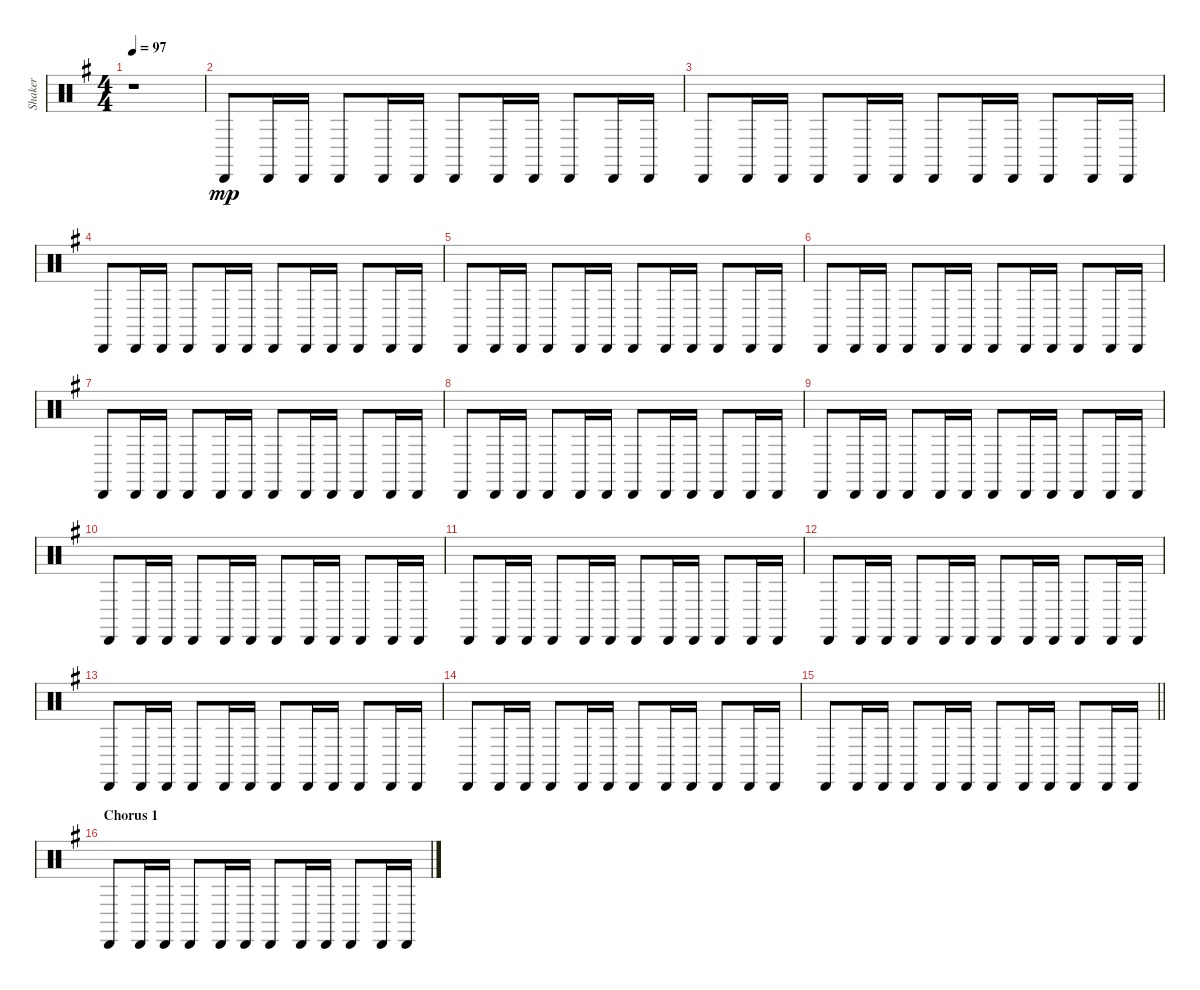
\track ("Shaker" "Shaker") {instrument percussion}
\staff {score}
\articulation defaults
\ts (4 4)
\tempo 97
\clef neutral
\ks g
r.1{dy mp} |
"Cabasa (hit)".8 "Cabasa (hit)".16 "Cabasa (hit)".16 "Cabasa (hit)".8 "Cabasa (hit)".16 "Cabasa (hit)".16 "Cabasa (hit)".8 "Cabasa (hit)".16 "Cabasa (hit)".16 "Cabasa (hit)".8 "Cabasa (hit)".16 "Cabasa (hit)".16 |
"Cabasa (hit)".8 "Cabasa (hit)".16 "Cabasa (hit)".16 "Cabasa (hit)".8 "Cabasa (hit)".16 "Cabasa (hit)".16 "Cabasa (hit)".8 "Cabasa (hit)".16 "Cabasa (hit)".16 "Cabasa (hit)".8 "Cabasa (hit)".16 "Cabasa (hit)".16 |
"Cabasa (hit)".8 "Cabasa (hit)".16 "Cabasa (hit)".16 "Cabasa (hit)".8 "Cabasa (hit)".16 "Cabasa (hit)".16 "Cabasa (hit)".8 "Cabasa (hit)".16 "Cabasa (hit)".16 "Cabasa (hit)".8 "Cabasa (hit)".16 "Cabasa (hit)".16 |
"Cabasa (hit)".8 "Cabasa (hit)".16 "Cabasa (hit)".16 "Cabasa (hit)".8 "Cabasa (hit)".16 "Cabasa (hit)".16 "Cabasa (hit)".8 "Cabasa (hit)".16 "Cabasa (hit)".16 "Cabasa (hit)".8 "Cabasa (hit)".16 "Cabasa (hit)".16 |
"Cabasa (hit)".8 "Cabasa (hit)".16 "Cabasa (hit)".16 "Cabasa (hit)".8 "Cabasa (hit)".16 "Cabasa (hit)".16 "Cabasa (hit)".8 "Cabasa (hit)".16 "Cabasa (hit)".16 "Cabasa (hit)".8 "Cabasa (hit)".16 "Cabasa (hit)".16 |
"Cabasa (hit)".8 "Cabasa (hit)".16 "Cabasa (hit)".16 "Cabasa (hit)".8 "Cabasa (hit)".16 "Cabasa (hit)".16 "Cabasa (hit)".8 "Cabasa (hit)".16 "Cabasa (hit)".16 "Cabasa (hit)".8 "Cabasa (hit)".16 "Cabasa (hit)".16 |
"Cabasa (hit)".8 "Cabasa (hit)".16 "Cabasa (hit)".16 "Cabasa (hit)".8 "Cabasa (hit)".16 "Cabasa (hit)".16 "Cabasa (hit)".8 "Cabasa (hit)".16 "Cabasa (hit)".16 "Cabasa (hit)".8 "Cabasa (hit)".16 "Cabasa (hit)".16 |
"Cabasa (hit)".8 "Cabasa (hit)".16 "Cabasa (hit)".16 "Cabasa (hit)".8 "Cabasa (hit)".16 "Cabasa (hit)".16 "Cabasa (hit)".8 "Cabasa (hit)".16 "Cabasa (hit)".16 "Cabasa (hit)".8 "Cabasa (hit)".16 "Cabasa (hit)".16 |
"Cabasa (hit)".8 "Cabasa (hit)".16 "Cabasa (hit)".16 "Cabasa (hit)".8 "Cabasa (hit)".16 "Cabasa (hit)".16 "Cabasa (hit)".8 "Cabasa (hit)".16 "Cabasa (hit)".16 "Cabasa (hit)".8 "Cabasa (hit)".16 "Cabasa (hit)".16 |
"Cabasa (hit)".8 "Cabasa (hit)".16 "Cabasa (hit)".16 "Cabasa (hit)".8 "Cabasa (hit)".16 "Cabasa (hit)".16 "Cabasa (hit)".8 "Cabasa (hit)".16 "Cabasa (hit)".16 "Cabasa (hit)".8 "Cabasa (hit)".16 "Cabasa (hit)".16 |
"Cabasa (hit)".8 "Cabasa (hit)".16 "Cabasa (hit)".16 "Cabasa (hit)".8 "Cabasa (hit)".16 "Cabasa (hit)".16 "Cabasa (hit)".8 "Cabasa (hit)".16 "Cabasa (hit)".16 "Cabasa (hit)".8 "Cabasa (hit)".16 "Cabasa (hit)".16 |
"Cabasa (hit)".8 "Cabasa (hit)".16 "Cabasa (hit)".16 "Cabasa (hit)".8 "Cabasa (hit)".16 "Cabasa (hit)".16 "Cabasa (hit)".8 "Cabasa (hit)".16 "Cabasa (hit)".16 "Cabasa (hit)".8 "Cabasa (hit)".16 "Cabasa (hit)".16 |
"Cabasa (hit)".8 "Cabasa (hit)".16 "Cabasa (hit)".16 "Cabasa (hit)".8 "Cabasa (hit)".16 "Cabasa (hit)".16 "Cabasa (hit)".8 "Cabasa (hit)".16 "Cabasa (hit)".16 "Cabasa (hit)".8 "Cabasa (hit)".16 "Cabasa (hit)".16 |
\barLineRight lightlight "Cabasa (hit)".8 "Cabasa (hit)".16 "Cabasa (hit)".16 "Cabasa (hit)".8 "Cabasa (hit)".16 "Cabasa (hit)".16 "Cabasa (hit)".8 "Cabasa (hit)".16 "Cabasa (hit)".16 "Cabasa (hit)".8 "Cabasa (hit)".16 "Cabasa (hit)".16
|
\section ("" "Chorus 1")
"Cabasa (hit)".8 "Cabasa (hit)".16 "Cabasa (hit)".16 "Cabasa (hit)".8 "Cabasa (hit)".16 "Cabasa (hit)".16 "Cabasa (hit)".8 "Cabasa (hit)".16 "Cabasa (hit)".16 "Cabasa (hit)".8 "Cabasa (hit)".16 "Cabasa (hit)".16
